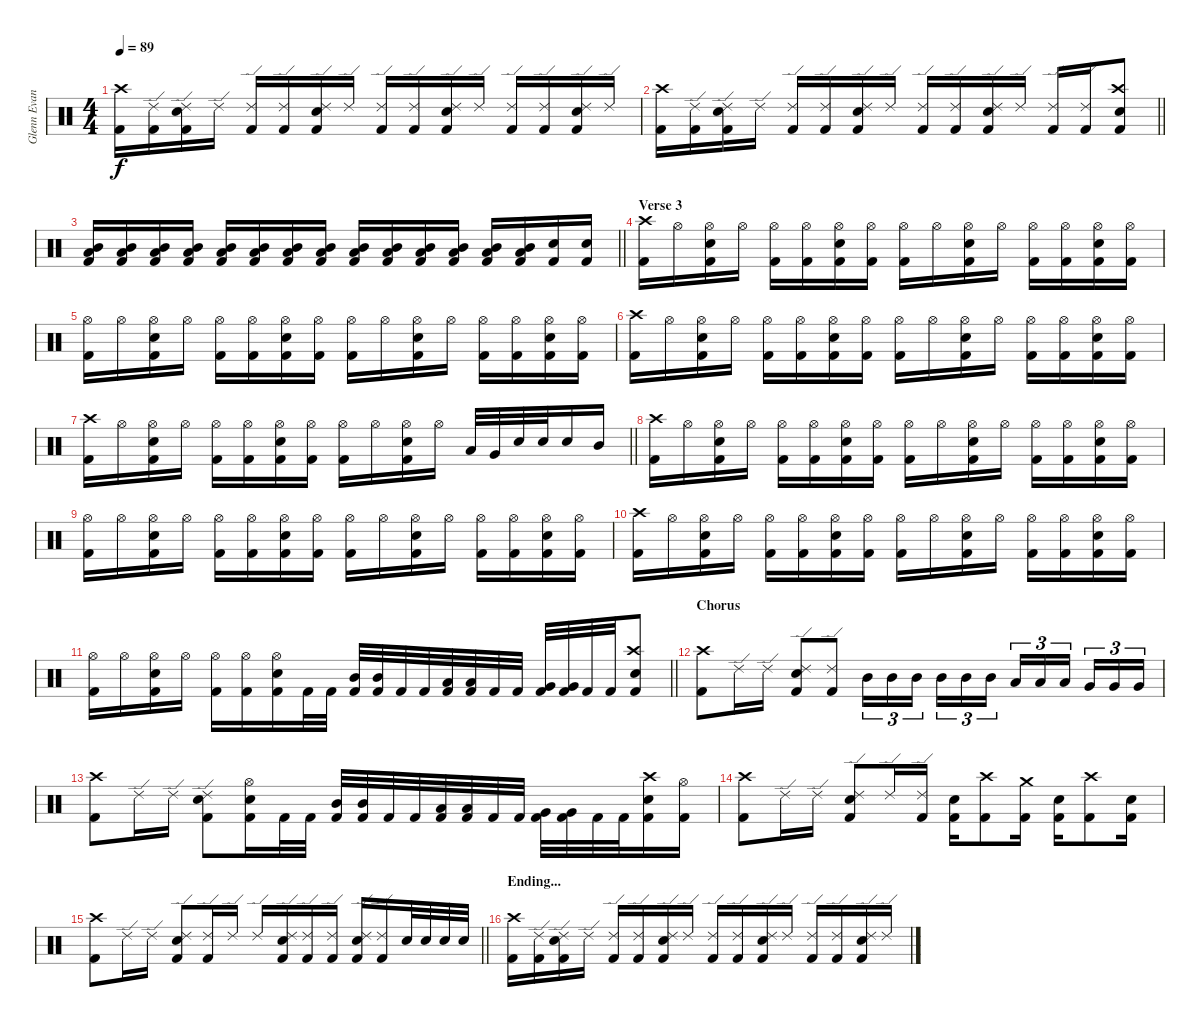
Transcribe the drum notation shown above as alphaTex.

\track ("Glenn Evans (Drums)" "Glenn Evan") {instrument percussion}
\staff {score}
\articulation defaults
\ts (4 4)
\tempo 89
\clef neutral
\ks c
("Kick (hit) 2" "Crash high (hit)").16{dy f} ("Kick (hit) 2" "Ride (edge) 2").16 ("Kick (hit) 2" "Electric Snare (hit)" "Ride (edge) 2").16 "Ride (edge) 2".16 ("Kick (hit) 2" "Ride (edge) 2").16 ("Kick (hit) 2" "Ride (edge) 2").16 ("Kick (hit) 2" "Electric Snare (hit)" "Ride (edge) 2").16 "Ride (edge) 2".16 ("Kick (hit) 2" "Ride (edge) 2").16 ("Kick (hit) 2" "Ride (edge) 2").16 ("Kick (hit) 2" "Electric Snare (hit)" "Ride (edge) 2").16 "Ride (edge) 2".16 ("Kick (hit) 2" "Ride (edge) 2").16 ("Kick (hit) 2" "Ride (edge) 2").16 ("Kick (hit) 2" "Electric Snare (hit)" "Ride (edge) 2").16 "Ride (edge) 2".16 |
\barLineRight lightlight
("Kick (hit) 2" "Crash high (hit)").16 ("Kick (hit) 2" "Ride (edge) 2").16 ("Kick (hit) 2" "Electric Snare (hit)" "Ride (edge) 2").16 "Ride (edge) 2".16 ("Kick (hit) 2" "Ride (edge) 2").16 ("Kick (hit) 2" "Ride (edge) 2").16 ("Kick (hit) 2" "Electric Snare (hit)" "Ride (edge) 2").16 "Ride (edge) 2".16 ("Kick (hit) 2" "Ride (edge) 2").16 ("Kick (hit) 2" "Ride (edge) 2").16 ("Kick (hit) 2" "Electric Snare (hit)" "Ride (edge) 2").16 "Ride (edge) 2".16 ("Kick (hit) 2" "Ride (edge) 2").16 ("Kick (hit) 2" "Ride (edge) 2").16 ("Kick (hit) 2" "Electric Snare (hit)" "Crash high (hit)").8 |
\barLineRight lightlight
("Kick (hit) 2" "Mid Tom (hit)" "Low Floor Tom (hit)").16 ("Kick (hit) 2" "Mid Tom (hit)" "Low Floor Tom (hit)").16 ("Kick (hit) 2" "Mid Tom (hit)" "Low Floor Tom (hit)").16 ("Kick (hit) 2" "Mid Tom (hit)" "Low Floor Tom (hit)").16 ("Kick (hit) 2" "Mid Tom (hit)" "Low Floor Tom (hit)").16 ("Kick (hit) 2" "Mid Tom (hit)" "Low Floor Tom (hit)").16 ("Kick (hit) 2" "Mid Tom (hit)" "Low Floor Tom (hit)").16 ("Kick (hit) 2" "Mid Tom (hit)" "Low Floor Tom (hit)").16 ("Kick (hit) 2" "Mid Tom (hit)" "Low Floor Tom (hit)").16 ("Kick (hit) 2" "Mid Tom (hit)" "Low Floor Tom (hit)").16 ("Kick (hit) 2" "Mid Tom (hit)" "Low Floor Tom (hit)").16 ("Kick (hit) 2" "Mid Tom (hit)" "Low Floor Tom (hit)").16 ("Kick (hit) 2" "Mid Tom (hit)" "Low Floor Tom (hit)").16 ("Kick (hit) 2" "Mid Tom (hit)" "Low Floor Tom (hit)").16 ("Kick (hit) 2" "Electric Snare (hit)").16 ("Kick (hit) 2" "Electric Snare (hit)").16 |
\section ("" "Verse 3")
("Kick (hit) 2" "Crash high (hit)").16 "Hi-Hat (open)".16 ("Kick (hit) 2" "Electric Snare (hit)" "Hi-Hat (open)").16 "Hi-Hat (open)".16 ("Kick (hit) 2" "Hi-Hat (open)").16 ("Kick (hit) 2" "Hi-Hat (open)").16 ("Kick (hit) 2" "Electric Snare (hit)" "Hi-Hat (open)").16 ("Kick (hit) 2" "Hi-Hat (open)").16 ("Kick (hit) 2" "Hi-Hat (open)").16 "Hi-Hat (open)".16 ("Kick (hit) 2" "Electric Snare (hit)" "Hi-Hat (open)").16 "Hi-Hat (open)".16 ("Kick (hit) 2" "Hi-Hat (open)").16 ("Kick (hit) 2" "Hi-Hat (open)").16 ("Kick (hit) 2" "Electric Snare (hit)" "Hi-Hat (open)").16 ("Kick (hit) 2" "Hi-Hat (open)").16 |
("Kick (hit) 2" "Hi-Hat (open)").16 "Hi-Hat (open)".16 ("Kick (hit) 2" "Electric Snare (hit)" "Hi-Hat (open)").16 "Hi-Hat (open)".16 ("Kick (hit) 2" "Hi-Hat (open)").16 ("Kick (hit) 2" "Hi-Hat (open)").16 ("Kick (hit) 2" "Electric Snare (hit)" "Hi-Hat (open)").16 ("Kick (hit) 2" "Hi-Hat (open)").16 ("Kick (hit) 2" "Hi-Hat (open)").16 "Hi-Hat (open)".16 ("Kick (hit) 2" "Electric Snare (hit)" "Hi-Hat (open)").16 "Hi-Hat (open)".16 ("Kick (hit) 2" "Hi-Hat (open)").16 ("Kick (hit) 2" "Hi-Hat (open)").16 ("Kick (hit) 2" "Electric Snare (hit)" "Hi-Hat (open)").16 ("Kick (hit) 2" "Hi-Hat (open)").16 |
("Kick (hit) 2" "Crash high (hit)").16 "Hi-Hat (open)".16 ("Kick (hit) 2" "Electric Snare (hit)" "Hi-Hat (open)").16 "Hi-Hat (open)".16 ("Kick (hit) 2" "Hi-Hat (open)").16 ("Kick (hit) 2" "Hi-Hat (open)").16 ("Kick (hit) 2" "Electric Snare (hit)" "Hi-Hat (open)").16 ("Kick (hit) 2" "Hi-Hat (open)").16 ("Kick (hit) 2" "Hi-Hat (open)").16 "Hi-Hat (open)".16 ("Kick (hit) 2" "Electric Snare (hit)" "Hi-Hat (open)").16 "Hi-Hat (open)".16 ("Kick (hit) 2" "Hi-Hat (open)").16 ("Kick (hit) 2" "Hi-Hat (open)").16 ("Kick (hit) 2" "Electric Snare (hit)" "Hi-Hat (open)").16 ("Kick (hit) 2" "Hi-Hat (open)").16 |
\barLineRight lightlight
("Kick (hit) 2" "Crash high (hit)").16 "Hi-Hat (open)".16 ("Kick (hit) 2" "Electric Snare (hit)" "Hi-Hat (open)").16 "Hi-Hat (open)".16 ("Kick (hit) 2" "Hi-Hat (open)").16 ("Kick (hit) 2" "Hi-Hat (open)").16 ("Kick (hit) 2" "Electric Snare (hit)" "Hi-Hat (open)").16 ("Kick (hit) 2" "Hi-Hat (open)").16 ("Kick (hit) 2" "Hi-Hat (open)").16 "Hi-Hat (open)".16 ("Kick (hit) 2" "Electric Snare (hit)" "Hi-Hat (open)").16 "Hi-Hat (open)".16 "Low Tom (hit)".32 "Very Low Tom (hit)".32 "Electric Snare (hit)".32 "Electric Snare (hit)".32 "Electric Snare (hit)".16 "Mid Tom (hit)".16 |
("Kick (hit) 2" "Crash high (hit)").16 "Hi-Hat (open)".16 ("Kick (hit) 2" "Electric Snare (hit)" "Hi-Hat (open)").16 "Hi-Hat (open)".16 ("Kick (hit) 2" "Hi-Hat (open)").16 ("Kick (hit) 2" "Hi-Hat (open)").16 ("Kick (hit) 2" "Electric Snare (hit)" "Hi-Hat (open)").16 ("Kick (hit) 2" "Hi-Hat (open)").16 ("Kick (hit) 2" "Hi-Hat (open)").16 "Hi-Hat (open)".16 ("Kick (hit) 2" "Electric Snare (hit)" "Hi-Hat (open)").16 "Hi-Hat (open)".16 ("Kick (hit) 2" "Hi-Hat (open)").16 ("Kick (hit) 2" "Hi-Hat (open)").16 ("Kick (hit) 2" "Electric Snare (hit)" "Hi-Hat (open)").16 ("Kick (hit) 2" "Hi-Hat (open)").16 |
("Kick (hit) 2" "Hi-Hat (open)").16 "Hi-Hat (open)".16 ("Kick (hit) 2" "Electric Snare (hit)" "Hi-Hat (open)").16 "Hi-Hat (open)".16 ("Kick (hit) 2" "Hi-Hat (open)").16 ("Kick (hit) 2" "Hi-Hat (open)").16 ("Kick (hit) 2" "Electric Snare (hit)" "Hi-Hat (open)").16 ("Kick (hit) 2" "Hi-Hat (open)").16 ("Kick (hit) 2" "Hi-Hat (open)").16 "Hi-Hat (open)".16 ("Kick (hit) 2" "Electric Snare (hit)" "Hi-Hat (open)").16 "Hi-Hat (open)".16 ("Kick (hit) 2" "Hi-Hat (open)").16 ("Kick (hit) 2" "Hi-Hat (open)").16 ("Kick (hit) 2" "Electric Snare (hit)" "Hi-Hat (open)").16 ("Kick (hit) 2" "Hi-Hat (open)").16 |
("Kick (hit) 2" "Crash high (hit)").16 "Hi-Hat (open)".16 ("Kick (hit) 2" "Electric Snare (hit)" "Hi-Hat (open)").16 "Hi-Hat (open)".16 ("Kick (hit) 2" "Hi-Hat (open)").16 ("Kick (hit) 2" "Hi-Hat (open)").16 ("Kick (hit) 2" "Electric Snare (hit)" "Hi-Hat (open)").16 ("Kick (hit) 2" "Hi-Hat (open)").16 ("Kick (hit) 2" "Hi-Hat (open)").16 "Hi-Hat (open)".16 ("Kick (hit) 2" "Electric Snare (hit)" "Hi-Hat (open)").16 "Hi-Hat (open)".16 ("Kick (hit) 2" "Hi-Hat (open)").16 ("Kick (hit) 2" "Hi-Hat (open)").16 ("Kick (hit) 2" "Electric Snare (hit)" "Hi-Hat (open)").16 ("Kick (hit) 2" "Hi-Hat (open)").16 |
\barLineRight lightlight
("Kick (hit) 2" "Hi-Hat (open)").16 "Hi-Hat (open)".16 ("Kick (hit) 2" "Electric Snare (hit)" "Hi-Hat (open)").16 "Hi-Hat (open)".16 ("Kick (hit) 2" "Hi-Hat (open)").16 ("Kick (hit) 2" "Hi-Hat (open)").16 ("Kick (hit) 2" "Electric Snare (hit)" "Hi-Hat (open)").16 "Kick (hit) 2".32 "Kick (hit) 2".32 ("Kick (hit) 2" "Mid Tom (hit)").32 ("Kick (hit) 2" "Mid Tom (hit)").32 "Kick (hit) 2".32 "Kick (hit) 2".32 ("Kick (hit) 2" "Low Tom (hit)").32 ("Kick (hit) 2" "Low Tom (hit)").32 "Kick (hit) 2".32 "Kick (hit) 2".32 ("Kick (hit) 2" "Very Low Tom (hit)").32 ("Kick (hit) 2" "Very Low Tom (hit)").32 "Kick (hit) 2".32 "Kick (hit) 2".32 ("Kick (hit) 2" "Electric Snare (hit)" "Crash high (hit)").8 |
\section ("" "Chorus")
("Kick (hit) 2" "Crash high (hit)").8 "Ride (edge) 2".16 "Ride (edge) 2".16 ("Kick (hit) 2" "Electric Snare (hit)" "Ride (edge) 2").8 ("Kick (hit) 2" "Ride (edge) 2").8 "Mid Tom (hit)".16{tu (3 2)} "Mid Tom (hit)".16{tu (3 2)} "Mid Tom (hit)".16{tu (3 2) beam splitsecondary} "Mid Tom (hit)".16{tu (3 2)} "Mid Tom (hit)".16{tu (3 2)} "Mid Tom (hit)".16{tu (3 2)} "Low Tom (hit)".16{tu (3 2)} "Low Tom (hit)".16{tu (3 2)} "Low Tom (hit)".16{tu (3 2) beam splitsecondary} "Very Low Tom (hit)".16{tu (3 2)} "Very Low Tom (hit)".16{tu (3 2)} "Very Low Tom (hit)".16{tu (3 2)} |
("Kick (hit) 2" "Crash high (hit)").8 "Ride (edge) 2".16 "Ride (edge) 2".16 ("Kick (hit) 2" "Electric Snare (hit)" "Ride (edge) 2").8 ("Kick (hit) 2" "Electric Snare (hit)" "Hi-Hat (open)").16 "Kick (hit) 2".32 "Kick (hit) 2".32 ("Kick (hit) 2" "Mid Tom (hit)").32 ("Kick (hit) 2" "Mid Tom (hit)").32 "Kick (hit) 2".32 "Kick (hit) 2".32 ("Kick (hit) 2" "Low Tom (hit)").32 ("Kick (hit) 2" "Low Tom (hit)").32 "Kick (hit) 2".32 "Kick (hit) 2".32 ("Kick (hit) 2" "Very Low Tom (hit)").32 ("Kick (hit) 2" "Very Low Tom (hit)").32 "Kick (hit) 2".32 "Kick (hit) 2".32 ("Kick (hit) 2" "Electric Snare (hit)" "Crash high (hit)").16 ("Kick (hit) 2" "Hi-Hat (open)").16 |
("Kick (hit) 2" "Crash high (hit)").8 "Ride (edge) 2".16 "Ride (edge) 2".16 ("Kick (hit) 2" "Electric Snare (hit)" "Ride (edge) 2").8 "Ride (edge) 2".16 ("Kick (hit) 2" "Ride (edge) 2").16 ("Kick (hit) 2" "Electric Snare (hit)").16 ("Kick (hit) 2" "Crash high (hit)").8 ("Kick (hit) 2" "Crash medium (hit)").16 ("Kick (hit) 2" "Electric Snare (hit)").16 ("Kick (hit) 2" "Crash high (hit)").8 ("Kick (hit) 2" "Electric Snare (hit)").16 |
\barLineRight lightlight
("Kick (hit) 2" "Crash high (hit)").8 "Ride (edge) 2".16 "Ride (edge) 2".16 ("Kick (hit) 2" "Electric Snare (hit)" "Ride (edge) 2").8 ("Kick (hit) 2" "Ride (edge) 2").16 "Ride (edge) 2".16 "Ride (edge) 2".16 ("Kick (hit) 2" "Electric Snare (hit)" "Ride (edge) 2").16 ("Kick (hit) 2" "Ride (edge) 2").16 ("Kick (hit) 2" "Ride (edge) 2").16 ("Kick (hit) 2" "Electric Snare (hit)" "Ride (edge) 2").16 ("Kick (hit) 2" "Ride (edge) 2").16 "Electric Snare (hit)".32 "Electric Snare (hit)".32 "Electric Snare (hit)".32 "Electric Snare (hit)".32 |
\section ("" "Ending...")
("Kick (hit) 2" "Crash high (hit)").16 ("Kick (hit) 2" "Ride (edge) 2").16 ("Kick (hit) 2" "Electric Snare (hit)" "Ride (edge) 2").16 "Ride (edge) 2".16 ("Kick (hit) 2" "Ride (edge) 2").16 ("Kick (hit) 2" "Ride (edge) 2").16 ("Kick (hit) 2" "Electric Snare (hit)" "Ride (edge) 2").16 "Ride (edge) 2".16 ("Kick (hit) 2" "Ride (edge) 2").16 ("Kick (hit) 2" "Ride (edge) 2").16 ("Kick (hit) 2" "Electric Snare (hit)" "Ride (edge) 2").16 "Ride (edge) 2".16 ("Kick (hit) 2" "Ride (edge) 2").16 ("Kick (hit) 2" "Ride (edge) 2").16 ("Kick (hit) 2" "Electric Snare (hit)" "Ride (edge) 2").16 "Ride (edge) 2".16
